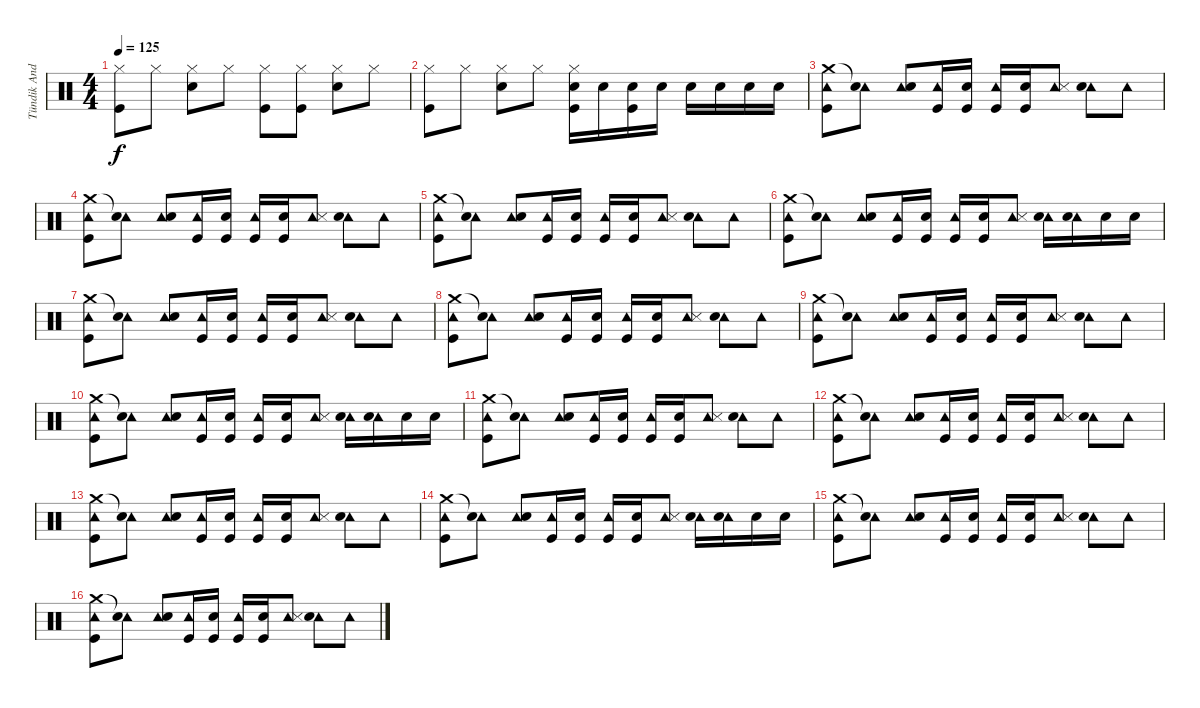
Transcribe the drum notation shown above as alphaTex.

\track ("Tündik András - Dob" "Tündik And") {instrument percussion}
\staff {score}
\articulation defaults
\ts (4 4)
\tempo 125
\clef neutral
\ks c
("Hi-Hat (closed)" "Kick (hit)").8{dy f} "Hi-Hat (closed)".8 ("Hi-Hat (closed)" "Snare (hit) 2").8 "Hi-Hat (closed)".8 ("Hi-Hat (closed)" "Kick (hit)").8 ("Hi-Hat (closed)" "Kick (hit)").8 ("Hi-Hat (closed)" "Snare (hit) 2").8 "Hi-Hat (closed)".8 |
("Hi-Hat (closed)" "Kick (hit)").8 "Hi-Hat (closed)".8 ("Hi-Hat (closed)" "Snare (hit) 2").8 "Hi-Hat (closed)".8 ("Hi-Hat (closed)" "Snare (hit) 2" "Kick (hit)").16 "Snare (hit) 2".16 ("Snare (hit) 2" "Kick (hit)").16 "Snare (hit) 2".16 "Snare (hit) 2".16 "Snare (hit) 2".16 "Snare (hit) 2".16 "Snare (hit) 2".16 |
("Tambourine (hit)" "Crash medium (hit)" "Kick (hit)").8 ("Tambourine (hit)" "Snare (hit)"{t}).8 ("Tambourine (hit)" "Snare (hit) 2").8 ("Tambourine (hit)" "Kick (hit)").16 ("Snare (hit) 2" "Kick (hit)").16 ("Tambourine (hit)" "Kick (hit)").16 ("Snare (hit) 2" "Kick (hit)").16 ("Tambourine (hit)" "Snare (side stick) 3").8 ("Tambourine (hit)" "Snare (hit) 2").8 "Tambourine (hit)".8 |
("Tambourine (hit)" "Crash medium (hit)" "Kick (hit)").8 ("Tambourine (hit)" "Snare (hit)"{t}).8 ("Tambourine (hit)" "Snare (hit) 2").8 ("Tambourine (hit)" "Kick (hit)").16 ("Snare (hit) 2" "Kick (hit)").16 ("Tambourine (hit)" "Kick (hit)").16 ("Snare (hit) 2" "Kick (hit)").16 ("Tambourine (hit)" "Snare (side stick) 3").8 ("Tambourine (hit)" "Snare (hit) 2").8 "Tambourine (hit)".8 |
("Tambourine (hit)" "Crash medium (hit)" "Kick (hit)").8 ("Tambourine (hit)" "Snare (hit)"{t}).8 ("Tambourine (hit)" "Snare (hit) 2").8 ("Tambourine (hit)" "Kick (hit)").16 ("Snare (hit) 2" "Kick (hit)").16 ("Tambourine (hit)" "Kick (hit)").16 ("Snare (hit) 2" "Kick (hit)").16 ("Tambourine (hit)" "Snare (side stick) 3").8 ("Tambourine (hit)" "Snare (hit) 2").8 "Tambourine (hit)".8 |
("Tambourine (hit)" "Crash medium (hit)" "Kick (hit)").8 ("Tambourine (hit)" "Snare (hit)"{t}).8 ("Tambourine (hit)" "Snare (hit) 2").8 ("Tambourine (hit)" "Kick (hit)").16 ("Snare (hit) 2" "Kick (hit)").16 ("Tambourine (hit)" "Kick (hit)").16 ("Snare (hit) 2" "Kick (hit)").16 ("Tambourine (hit)" "Snare (side stick) 3").8 ("Tambourine (hit)" "Snare (hit) 2").16 ("Tambourine (hit)" "Snare (hit) 2").16 "Snare (hit) 2".16 "Snare (hit) 2".16 |
("Tambourine (hit)" "Crash medium (hit)" "Kick (hit)").8 ("Tambourine (hit)" "Snare (hit)"{t}).8 ("Tambourine (hit)" "Snare (hit) 2").8 ("Tambourine (hit)" "Kick (hit)").16 ("Snare (hit) 2" "Kick (hit)").16 ("Tambourine (hit)" "Kick (hit)").16 ("Snare (hit) 2" "Kick (hit)").16 ("Tambourine (hit)" "Snare (side stick) 3").8 ("Tambourine (hit)" "Snare (hit) 2").8 "Tambourine (hit)".8 |
("Tambourine (hit)" "Crash medium (hit)" "Kick (hit)").8 ("Tambourine (hit)" "Snare (hit)"{t}).8 ("Tambourine (hit)" "Snare (hit) 2").8 ("Tambourine (hit)" "Kick (hit)").16 ("Snare (hit) 2" "Kick (hit)").16 ("Tambourine (hit)" "Kick (hit)").16 ("Snare (hit) 2" "Kick (hit)").16 ("Tambourine (hit)" "Snare (side stick) 3").8 ("Tambourine (hit)" "Snare (hit) 2").8 "Tambourine (hit)".8 |
("Tambourine (hit)" "Crash medium (hit)" "Kick (hit)").8 ("Tambourine (hit)" "Snare (hit)"{t}).8 ("Tambourine (hit)" "Snare (hit) 2").8 ("Tambourine (hit)" "Kick (hit)").16 ("Snare (hit) 2" "Kick (hit)").16 ("Tambourine (hit)" "Kick (hit)").16 ("Snare (hit) 2" "Kick (hit)").16 ("Tambourine (hit)" "Snare (side stick) 3").8 ("Tambourine (hit)" "Snare (hit) 2").8 "Tambourine (hit)".8 |
("Tambourine (hit)" "Crash medium (hit)" "Kick (hit)").8 ("Tambourine (hit)" "Snare (hit)"{t}).8 ("Tambourine (hit)" "Snare (hit) 2").8 ("Tambourine (hit)" "Kick (hit)").16 ("Snare (hit) 2" "Kick (hit)").16 ("Tambourine (hit)" "Kick (hit)").16 ("Snare (hit) 2" "Kick (hit)").16 ("Tambourine (hit)" "Snare (side stick) 3").8 ("Tambourine (hit)" "Snare (hit) 2").16 ("Tambourine (hit)" "Snare (hit) 2").16 "Snare (hit) 2".16 "Snare (hit) 2".16 |
("Tambourine (hit)" "Crash medium (hit)" "Kick (hit)").8 ("Tambourine (hit)" "Snare (hit)"{t}).8 ("Tambourine (hit)" "Snare (hit) 2").8 ("Tambourine (hit)" "Kick (hit)").16 ("Snare (hit) 2" "Kick (hit)").16 ("Tambourine (hit)" "Kick (hit)").16 ("Snare (hit) 2" "Kick (hit)").16 ("Tambourine (hit)" "Snare (side stick) 3").8 ("Tambourine (hit)" "Snare (hit) 2").8 "Tambourine (hit)".8 |
("Tambourine (hit)" "Crash medium (hit)" "Kick (hit)").8 ("Tambourine (hit)" "Snare (hit)"{t}).8 ("Tambourine (hit)" "Snare (hit) 2").8 ("Tambourine (hit)" "Kick (hit)").16 ("Snare (hit) 2" "Kick (hit)").16 ("Tambourine (hit)" "Kick (hit)").16 ("Snare (hit) 2" "Kick (hit)").16 ("Tambourine (hit)" "Snare (side stick) 3").8 ("Tambourine (hit)" "Snare (hit) 2").8 "Tambourine (hit)".8 |
("Tambourine (hit)" "Crash medium (hit)" "Kick (hit)").8 ("Tambourine (hit)" "Snare (hit)"{t}).8 ("Tambourine (hit)" "Snare (hit) 2").8 ("Tambourine (hit)" "Kick (hit)").16 ("Snare (hit) 2" "Kick (hit)").16 ("Tambourine (hit)" "Kick (hit)").16 ("Snare (hit) 2" "Kick (hit)").16 ("Tambourine (hit)" "Snare (side stick) 3").8 ("Tambourine (hit)" "Snare (hit) 2").8 "Tambourine (hit)".8 |
("Tambourine (hit)" "Crash medium (hit)" "Kick (hit)").8 ("Tambourine (hit)" "Snare (hit)"{t}).8 ("Tambourine (hit)" "Snare (hit) 2").8 ("Tambourine (hit)" "Kick (hit)").16 ("Snare (hit) 2" "Kick (hit)").16 ("Tambourine (hit)" "Kick (hit)").16 ("Snare (hit) 2" "Kick (hit)").16 ("Tambourine (hit)" "Snare (side stick) 3").8 ("Tambourine (hit)" "Snare (hit) 2").16 ("Tambourine (hit)" "Snare (hit) 2").16 "Snare (hit) 2".16 "Snare (hit) 2".16 |
("Tambourine (hit)" "Crash medium (hit)" "Kick (hit)").8 ("Tambourine (hit)" "Snare (hit)"{t}).8 ("Tambourine (hit)" "Snare (hit) 2").8 ("Tambourine (hit)" "Kick (hit)").16 ("Snare (hit) 2" "Kick (hit)").16 ("Tambourine (hit)" "Kick (hit)").16 ("Snare (hit) 2" "Kick (hit)").16 ("Tambourine (hit)" "Snare (side stick) 3").8 ("Tambourine (hit)" "Snare (hit) 2").8 "Tambourine (hit)".8 |
("Tambourine (hit)" "Crash medium (hit)" "Kick (hit)").8 ("Tambourine (hit)" "Snare (hit)"{t}).8 ("Tambourine (hit)" "Snare (hit) 2").8 ("Tambourine (hit)" "Kick (hit)").16 ("Snare (hit) 2" "Kick (hit)").16 ("Tambourine (hit)" "Kick (hit)").16 ("Snare (hit) 2" "Kick (hit)").16 ("Tambourine (hit)" "Snare (side stick) 3").8 ("Tambourine (hit)" "Snare (hit) 2").8 "Tambourine (hit)".8
